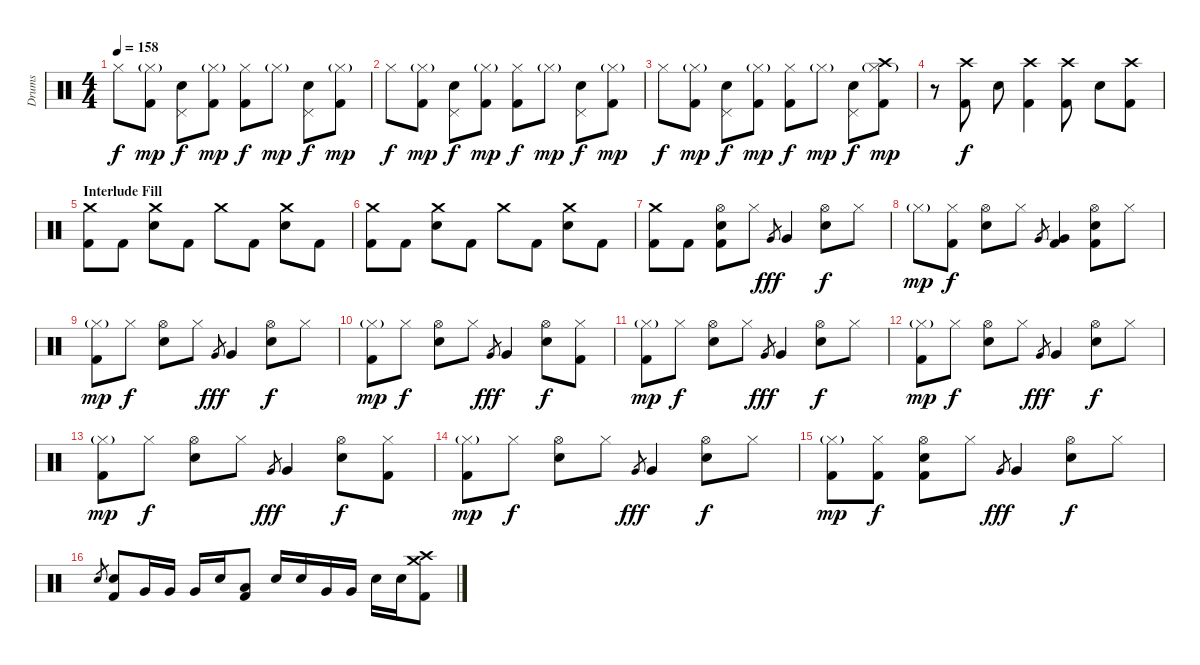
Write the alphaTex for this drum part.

\track ("Drums" "Drums") {instrument percussion}
\staff {score}
\articulation defaults
\ts (4 4)
\tempo 158
\clef neutral
\ks c "Hi-Hat (closed)".8{dy f}
("Hi-Hat (closed)"{g} "Kick (hit) 2").8{dy mp} ("Pedal Hi-Hat (hit)" "Snare (hit) 2").8{dy f} ("Hi-Hat (closed)"{g} "Kick (hit) 2").8{dy mp} ("Hi-Hat (closed)" "Kick (hit) 2").8{dy f} "Hi-Hat (closed)"{g}.8{dy mp} ("Pedal Hi-Hat (hit)" "Snare (hit) 2").8{dy f} ("Hi-Hat (closed)"{g} "Kick (hit) 2").8{dy mp} |
"Hi-Hat (closed)".8{dy f} ("Hi-Hat (closed)"{g} "Kick (hit) 2").8{dy mp} ("Pedal Hi-Hat (hit)" "Snare (hit) 2").8{dy f} ("Hi-Hat (closed)"{g} "Kick (hit) 2").8{dy mp} ("Hi-Hat (closed)" "Kick (hit) 2").8{dy f} "Hi-Hat (closed)"{g}.8{dy mp} ("Pedal Hi-Hat (hit)" "Snare (hit) 2").8{dy f} ("Hi-Hat (closed)"{g} "Kick (hit) 2").8{dy mp} |
"Hi-Hat (closed)".8{dy f} ("Hi-Hat (closed)"{g} "Kick (hit) 2").8{dy mp} ("Pedal Hi-Hat (hit)" "Snare (hit) 2").8{dy f} ("Hi-Hat (closed)"{g} "Kick (hit) 2").8{dy mp} ("Hi-Hat (closed)" "Kick (hit) 2").8{dy f} "Hi-Hat (closed)"{g}.8{dy mp} ("Pedal Hi-Hat (hit)" "Snare (hit) 2").8{dy f} ("Crash high (hit)" "Hi-Hat (closed)"{g} "Kick (hit) 2").8{dy mp} |
r.8 ("Crash high (hit)" "Kick (hit) 2").8{dy f} "Snare (hit) 2".8 ("Crash high (hit)" "Kick (hit) 2").4 ("Crash high (hit)" "Kick (hit) 2").8 "Snare (hit) 2".8 ("Crash high (hit)" "Kick (hit) 2").8 |
\section ("" "Interlude Fill")
("Crash medium (hit)" "Kick (hit) 2").8 "Kick (hit) 2".8 ("Crash medium (hit)" "Snare (hit) 2").8 "Kick (hit) 2".8 "Crash medium (hit)".8 "Kick (hit) 2".8 ("Crash medium (hit)" "Snare (hit) 2").8 "Kick (hit) 2".8 |
("Crash medium (hit)" "Kick (hit) 2").8 "Kick (hit) 2".8 ("Crash medium (hit)" "Snare (hit) 2").8 "Kick (hit) 2".8 "Crash medium (hit)".8 "Kick (hit) 2".8 ("Crash medium (hit)" "Snare (hit) 2").8 "Kick (hit) 2".8 |
("Crash medium (hit)" "Kick (hit) 2").8 "Kick (hit) 2".8 ("Hi-Hat (open)" "Snare (hit) 2" "Kick (hit) 2").8 "Hi-Hat (closed)".8 "Very Low Tom (hit)".8{gr dy fff} "Very Low Tom (hit)".4 ("Hi-Hat (open)" "Snare (hit) 2").8{dy f} "Hi-Hat (closed)".8 |
"Hi-Hat (closed)"{g}.8{dy mp} ("Hi-Hat (closed)" "Kick (hit) 2").8{dy f} ("Hi-Hat (open)" "Snare (hit) 2").8 "Hi-Hat (closed)".8 "Very Low Tom (hit)".8{gr} ("Very Low Tom (hit)" "Kick (hit) 2").4 ("Hi-Hat (open)" "Snare (hit) 2" "Kick (hit) 2").8 "Hi-Hat (closed)".8 |
("Hi-Hat (closed)"{g} "Kick (hit) 2").8{dy mp} "Hi-Hat (closed)".8{dy f} ("Hi-Hat (open)" "Snare (hit) 2").8 "Hi-Hat (closed)".8 "Very Low Tom (hit)".8{gr dy fff} "Very Low Tom (hit)".4 ("Hi-Hat (open)" "Snare (hit) 2").8{dy f} "Hi-Hat (closed)".8 |
("Hi-Hat (closed)"{g} "Kick (hit) 2").8{dy mp} "Hi-Hat (closed)".8{dy f} ("Hi-Hat (open)" "Snare (hit) 2").8 "Hi-Hat (closed)".8 "Very Low Tom (hit)".8{gr dy fff} "Very Low Tom (hit)".4 ("Hi-Hat (open)" "Snare (hit) 2").8{dy f} ("Hi-Hat (closed)" "Kick (hit) 2").8 |
("Hi-Hat (closed)"{g} "Kick (hit) 2").8{dy mp} "Hi-Hat (closed)".8{dy f} ("Hi-Hat (open)" "Snare (hit) 2").8 "Hi-Hat (closed)".8 "Very Low Tom (hit)".8{gr dy fff} "Very Low Tom (hit)".4 ("Hi-Hat (open)" "Snare (hit) 2").8{dy f} "Hi-Hat (closed)".8 |
("Hi-Hat (closed)"{g} "Kick (hit) 2").8{dy mp} "Hi-Hat (closed)".8{dy f} ("Hi-Hat (open)" "Snare (hit) 2").8 "Hi-Hat (closed)".8 "Very Low Tom (hit)".8{gr dy fff} "Very Low Tom (hit)".4 ("Hi-Hat (open)" "Snare (hit) 2").8{dy f} "Hi-Hat (closed)".8 |
("Hi-Hat (closed)"{g} "Kick (hit) 2").8{dy mp} "Hi-Hat (closed)".8{dy f} ("Hi-Hat (open)" "Snare (hit) 2").8 "Hi-Hat (closed)".8 "Very Low Tom (hit)".8{gr dy fff} "Very Low Tom (hit)".4 ("Hi-Hat (open)" "Snare (hit) 2").8{dy f} ("Hi-Hat (closed)" "Kick (hit) 2").8 |
("Hi-Hat (closed)"{g} "Kick (hit) 2").8{dy mp} "Hi-Hat (closed)".8{dy f} ("Hi-Hat (open)" "Snare (hit) 2").8 "Hi-Hat (closed)".8 "Very Low Tom (hit)".8{gr dy fff} "Very Low Tom (hit)".4 ("Hi-Hat (open)" "Snare (hit) 2").8{dy f} "Hi-Hat (closed)".8 |
("Hi-Hat (closed)"{g} "Kick (hit) 2").8{dy mp} ("Hi-Hat (closed)" "Kick (hit) 2").8{dy f} ("Hi-Hat (open)" "Snare (hit) 2" "Kick (hit) 2").8 "Hi-Hat (closed)".8 "Very Low Tom (hit)".8{gr dy fff} "Very Low Tom (hit)".4 ("Hi-Hat (open)" "Snare (hit) 2").8{dy f} "Hi-Hat (closed)".8 |
"Snare (hit) 2".8{gr} ("Snare (hit) 2" "Kick (hit) 2").8 "Very Low Tom (hit)".16 "Very Low Tom (hit)".16 "Very Low Tom (hit)".16 "Snare (hit) 2".16 ("Low Floor Tom (hit)" "Kick (hit) 2").8 "Snare (hit) 2".16 "Snare (hit) 2".16 "Very Low Tom (hit)".16 "Very Low Tom (hit)".16 "Snare (hit) 2".16 "Snare (hit) 2".16 ("Crash medium (hit)" "Crash high (hit)" "Kick (hit) 2").8
